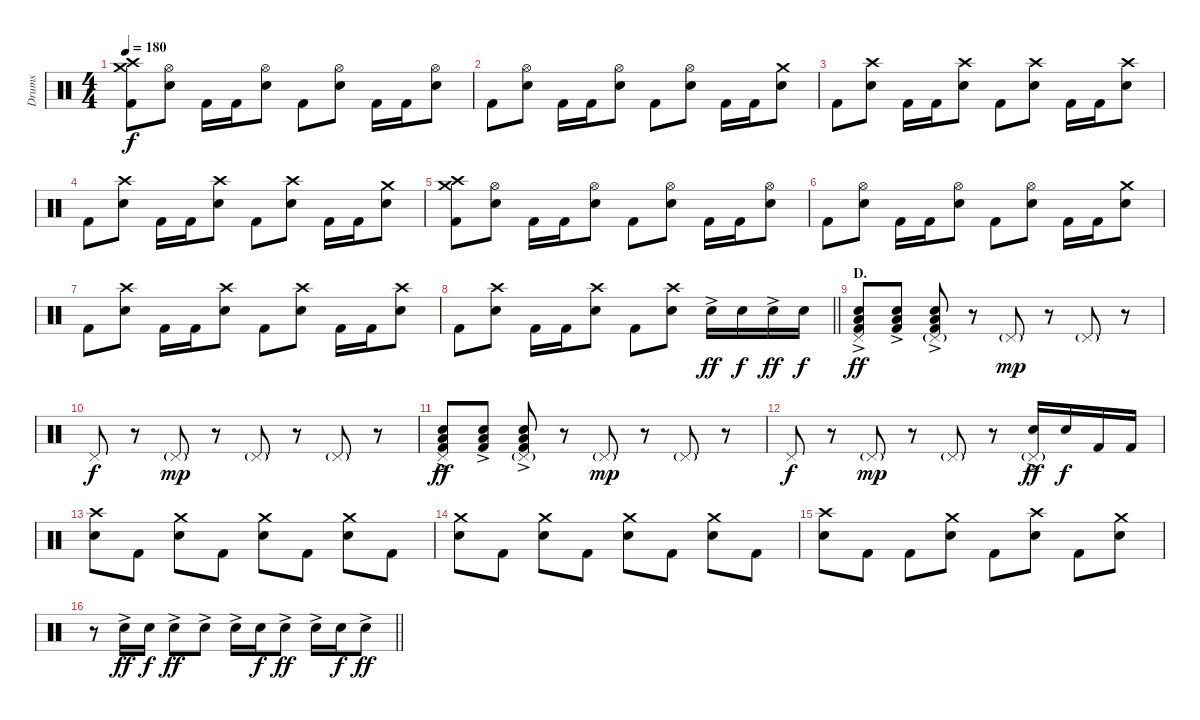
\track ("Drums" "Drums") {instrument percussion}
\staff {score}
\articulation defaults
\ts (4 4)
\tempo 180
\clef neutral
\ks c
("Crash medium (hit)" "Crash high (hit)" "Kick (hit) 2").8{dy f} ("Hi-Hat (open)" "Electric Snare (hit)").8 "Kick (hit) 2".16 "Kick (hit) 2".16 ("Hi-Hat (open)" "Electric Snare (hit)").8 "Kick (hit) 2".8 ("Hi-Hat (open)" "Electric Snare (hit)").8 "Kick (hit) 2".16 "Kick (hit) 2".16 ("Hi-Hat (open)" "Electric Snare (hit)").8 |
"Kick (hit) 2".8 ("Hi-Hat (open)" "Electric Snare (hit)").8 "Kick (hit) 2".16 "Kick (hit) 2".16 ("Hi-Hat (open)" "Electric Snare (hit)").8 "Kick (hit) 2".8 ("Hi-Hat (open)" "Electric Snare (hit)").8 "Kick (hit) 2".16 "Kick (hit) 2".16 ("Crash medium (hit)" "Electric Snare (hit)").8 |
"Kick (hit) 2".8 ("Crash high (hit)" "Electric Snare (hit)").8 "Kick (hit) 2".16 "Kick (hit) 2".16 ("Crash high (hit)" "Electric Snare (hit)").8 "Kick (hit) 2".8 ("Crash high (hit)" "Electric Snare (hit)").8 "Kick (hit) 2".16 "Kick (hit) 2".16 ("Crash high (hit)" "Electric Snare (hit)").8 |
"Kick (hit) 2".8 ("Crash high (hit)" "Electric Snare (hit)").8 "Kick (hit) 2".16 "Kick (hit) 2".16 ("Crash high (hit)" "Electric Snare (hit)").8 "Kick (hit) 2".8 ("Crash high (hit)" "Electric Snare (hit)").8 "Kick (hit) 2".16 "Kick (hit) 2".16 ("Crash medium (hit)" "Electric Snare (hit)").8 |
("Crash medium (hit)" "Crash high (hit)" "Kick (hit) 2").8 ("Hi-Hat (open)" "Electric Snare (hit)").8 "Kick (hit) 2".16 "Kick (hit) 2".16 ("Hi-Hat (open)" "Electric Snare (hit)").8 "Kick (hit) 2".8 ("Hi-Hat (open)" "Electric Snare (hit)").8 "Kick (hit) 2".16 "Kick (hit) 2".16 ("Hi-Hat (open)" "Electric Snare (hit)").8 |
"Kick (hit) 2".8 ("Hi-Hat (open)" "Electric Snare (hit)").8 "Kick (hit) 2".16 "Kick (hit) 2".16 ("Hi-Hat (open)" "Electric Snare (hit)").8 "Kick (hit) 2".8 ("Hi-Hat (open)" "Electric Snare (hit)").8 "Kick (hit) 2".16 "Kick (hit) 2".16 ("Crash medium (hit)" "Electric Snare (hit)").8 |
"Kick (hit) 2".8 ("Crash high (hit)" "Electric Snare (hit)").8 "Kick (hit) 2".16 "Kick (hit) 2".16 ("Crash high (hit)" "Electric Snare (hit)").8 "Kick (hit) 2".8 ("Crash high (hit)" "Electric Snare (hit)").8 "Kick (hit) 2".16 "Kick (hit) 2".16 ("Crash high (hit)" "Electric Snare (hit)").8 |
\barLineRight lightlight "Kick (hit) 2".8
("Crash high (hit)" "Electric Snare (hit)").8 "Kick (hit) 2".16 "Kick (hit) 2".16 ("Crash high (hit)" "Electric Snare (hit)").8 "Kick (hit) 2".8 ("Crash high (hit)" "Electric Snare (hit)").8 "Electric Snare (hit)"{ac}.16{dy ff} "Electric Snare (hit)".16{dy f} "Electric Snare (hit)"{ac}.16{dy ff} "Electric Snare (hit)".16{dy f} |
\section ("" "D.")
("Pedal Hi-Hat (hit)" "Electric Snare (hit)" "Low Floor Tom (hit)"{ac} "Kick (hit) 2").8{dy ff} ("Electric Snare (hit)" "Low Floor Tom (hit)"{ac} "Kick (hit) 2").8 ("Pedal Hi-Hat (hit)"{g} "Electric Snare (hit)" "Low Floor Tom (hit)"{ac} "Kick (hit) 2").8 r.8 "Pedal Hi-Hat (hit)"{g}.8{dy mp} r.8 "Pedal Hi-Hat (hit)"{g}.8 r.8 |
"Pedal Hi-Hat (hit)".8{dy f} r.8 "Pedal Hi-Hat (hit)"{g}.8{dy mp} r.8 "Pedal Hi-Hat (hit)"{g}.8 r.8 "Pedal Hi-Hat (hit)"{g}.8 r.8 |
("Pedal Hi-Hat (hit)" "Electric Snare (hit)" "Low Floor Tom (hit)"{ac} "Kick (hit) 2").8{dy ff} ("Electric Snare (hit)" "Low Floor Tom (hit)"{ac} "Kick (hit) 2").8 ("Pedal Hi-Hat (hit)"{g} "Electric Snare (hit)" "Low Floor Tom (hit)"{ac} "Kick (hit) 2").8 r.8 "Pedal Hi-Hat (hit)"{g}.8{dy mp} r.8 "Pedal Hi-Hat (hit)"{g}.8 r.8 |
"Pedal Hi-Hat (hit)".8{dy f} r.8 "Pedal Hi-Hat (hit)"{g}.8{dy mp} r.8 "Pedal Hi-Hat (hit)"{g}.8 r.8 ("Pedal Hi-Hat (hit)"{g} "Electric Snare (hit)"{ac}).16{dy ff} "Electric Snare (hit)".16{dy f} "Kick (hit) 2".16 "Kick (hit) 2".16 |
("Crash high (hit)" "Electric Snare (hit)").8 "Kick (hit) 2".8 ("Crash medium (hit)" "Electric Snare (hit)").8 "Kick (hit) 2".8 ("Crash medium (hit)" "Electric Snare (hit)").8 "Kick (hit) 2".8 ("Crash medium (hit)" "Electric Snare (hit)").8 "Kick (hit) 2".8 |
("Crash medium (hit)" "Electric Snare (hit)").8 "Kick (hit) 2".8 ("Crash medium (hit)" "Electric Snare (hit)").8 "Kick (hit) 2".8 ("Crash medium (hit)" "Electric Snare (hit)").8 "Kick (hit) 2".8 ("Crash medium (hit)" "Electric Snare (hit)").8 "Kick (hit) 2".8 |
("Crash high (hit)" "Electric Snare (hit)").8 "Kick (hit) 2".8 "Kick (hit) 2".8 ("Crash medium (hit)" "Electric Snare (hit)").8 "Kick (hit) 2".8 ("Crash high (hit)" "Electric Snare (hit)").8 "Kick (hit) 2".8 ("Crash medium (hit)" "Electric Snare (hit)").8 |
\barLineRight lightlight
r.8 "Electric Snare (hit)"{ac}.16{dy ff} "Electric Snare (hit)".16{dy f} "Electric Snare (hit)"{ac}.8{dy ff} "Electric Snare (hit)"{ac}.8 "Electric Snare (hit)"{ac}.16 "Electric Snare (hit)".16{dy f} "Electric Snare (hit)"{ac}.8{dy ff} "Electric Snare (hit)"{ac}.16 "Electric Snare (hit)".16{dy f} "Electric Snare (hit)"{ac}.8{dy ff}
